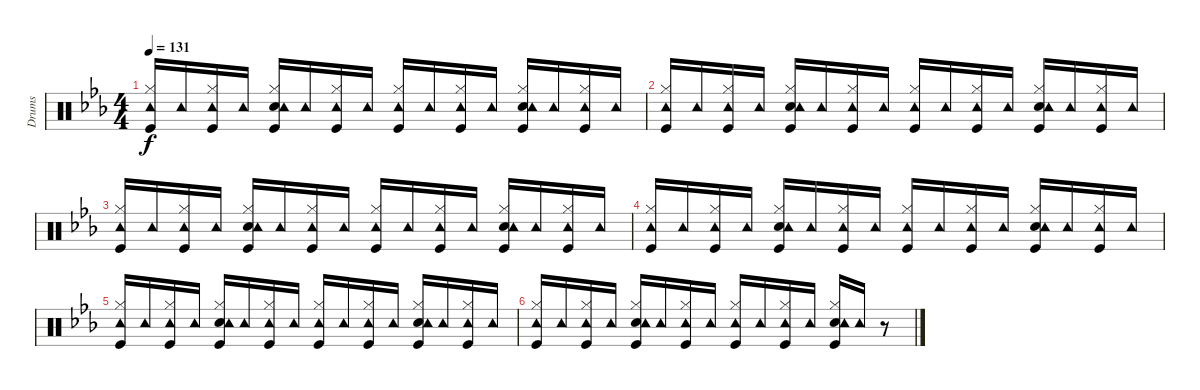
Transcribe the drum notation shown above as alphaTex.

\track ("Drums" "Drums") {instrument percussion}
\staff {score}
\articulation defaults
\ts (4 4)
\tempo 131
\clef neutral
\ks eb
("Kick (hit)" "Hi-Hat (closed)" "Tambourine (hit)").16{dy f} "Tambourine (hit)".16 ("Kick (hit)" "Hi-Hat (closed)" "Tambourine (hit)").16 "Tambourine (hit)".16 ("Kick (hit)" "Snare (hit) 2" "Hi-Hat (closed)" "Tambourine (hit)").16 "Tambourine (hit)".16 ("Kick (hit)" "Hi-Hat (closed)" "Tambourine (hit)").16 "Tambourine (hit)".16 ("Kick (hit)" "Hi-Hat (closed)" "Tambourine (hit)").16 "Tambourine (hit)".16 ("Kick (hit)" "Hi-Hat (closed)" "Tambourine (hit)").16 "Tambourine (hit)".16 ("Kick (hit)" "Snare (hit) 2" "Hi-Hat (closed)" "Tambourine (hit)").16 "Tambourine (hit)".16 ("Kick (hit)" "Hi-Hat (closed)" "Tambourine (hit)").16 "Tambourine (hit)".16 |
("Kick (hit)" "Hi-Hat (closed)" "Tambourine (hit)").16 "Tambourine (hit)".16 ("Kick (hit)" "Hi-Hat (closed)" "Tambourine (hit)").16 "Tambourine (hit)".16 ("Kick (hit)" "Snare (hit) 2" "Hi-Hat (closed)" "Tambourine (hit)").16 "Tambourine (hit)".16 ("Kick (hit)" "Hi-Hat (closed)" "Tambourine (hit)").16 "Tambourine (hit)".16 ("Kick (hit)" "Hi-Hat (closed)" "Tambourine (hit)").16 "Tambourine (hit)".16 ("Kick (hit)" "Hi-Hat (closed)" "Tambourine (hit)").16 "Tambourine (hit)".16 ("Kick (hit)" "Snare (hit) 2" "Hi-Hat (closed)" "Tambourine (hit)").16 "Tambourine (hit)".16 ("Kick (hit)" "Hi-Hat (closed)" "Tambourine (hit)").16 "Tambourine (hit)".16 |
("Kick (hit)" "Hi-Hat (closed)" "Tambourine (hit)").16 "Tambourine (hit)".16 ("Kick (hit)" "Hi-Hat (closed)" "Tambourine (hit)").16 "Tambourine (hit)".16 ("Kick (hit)" "Snare (hit) 2" "Hi-Hat (closed)" "Tambourine (hit)").16 "Tambourine (hit)".16 ("Kick (hit)" "Hi-Hat (closed)" "Tambourine (hit)").16 "Tambourine (hit)".16 ("Kick (hit)" "Hi-Hat (closed)" "Tambourine (hit)").16 "Tambourine (hit)".16 ("Kick (hit)" "Hi-Hat (closed)" "Tambourine (hit)").16 "Tambourine (hit)".16 ("Kick (hit)" "Snare (hit) 2" "Hi-Hat (closed)" "Tambourine (hit)").16 "Tambourine (hit)".16 ("Kick (hit)" "Hi-Hat (closed)" "Tambourine (hit)").16 "Tambourine (hit)".16 |
("Kick (hit)" "Hi-Hat (closed)" "Tambourine (hit)").16 "Tambourine (hit)".16 ("Kick (hit)" "Hi-Hat (closed)" "Tambourine (hit)").16 "Tambourine (hit)".16 ("Kick (hit)" "Snare (hit) 2" "Hi-Hat (closed)" "Tambourine (hit)").16 "Tambourine (hit)".16 ("Kick (hit)" "Hi-Hat (closed)" "Tambourine (hit)").16 "Tambourine (hit)".16 ("Kick (hit)" "Hi-Hat (closed)" "Tambourine (hit)").16 "Tambourine (hit)".16 ("Kick (hit)" "Hi-Hat (closed)" "Tambourine (hit)").16 "Tambourine (hit)".16 ("Kick (hit)" "Snare (hit) 2" "Hi-Hat (closed)" "Tambourine (hit)").16 "Tambourine (hit)".16 ("Kick (hit)" "Hi-Hat (closed)" "Tambourine (hit)").16 "Tambourine (hit)".16 |
("Kick (hit)" "Hi-Hat (closed)" "Tambourine (hit)").16 "Tambourine (hit)".16 ("Kick (hit)" "Hi-Hat (closed)" "Tambourine (hit)").16 "Tambourine (hit)".16 ("Kick (hit)" "Snare (hit) 2" "Hi-Hat (closed)" "Tambourine (hit)").16 "Tambourine (hit)".16 ("Kick (hit)" "Hi-Hat (closed)" "Tambourine (hit)").16 "Tambourine (hit)".16 ("Kick (hit)" "Hi-Hat (closed)" "Tambourine (hit)").16 "Tambourine (hit)".16 ("Kick (hit)" "Hi-Hat (closed)" "Tambourine (hit)").16 "Tambourine (hit)".16 ("Kick (hit)" "Snare (hit) 2" "Hi-Hat (closed)" "Tambourine (hit)").16 "Tambourine (hit)".16 ("Kick (hit)" "Hi-Hat (closed)" "Tambourine (hit)").16 "Tambourine (hit)".16 |
("Kick (hit)" "Hi-Hat (closed)" "Tambourine (hit)").16 "Tambourine (hit)".16 ("Kick (hit)" "Hi-Hat (closed)" "Tambourine (hit)").16 "Tambourine (hit)".16 ("Kick (hit)" "Snare (hit) 2" "Hi-Hat (closed)" "Tambourine (hit)").16 "Tambourine (hit)".16 ("Kick (hit)" "Hi-Hat (closed)" "Tambourine (hit)").16 "Tambourine (hit)".16 ("Kick (hit)" "Hi-Hat (closed)" "Tambourine (hit)").16 "Tambourine (hit)".16 ("Kick (hit)" "Hi-Hat (closed)" "Tambourine (hit)").16 "Tambourine (hit)".16 ("Kick (hit)" "Snare (hit) 2" "Hi-Hat (closed)" "Tambourine (hit)").16 "Tambourine (hit)".16 r.8
